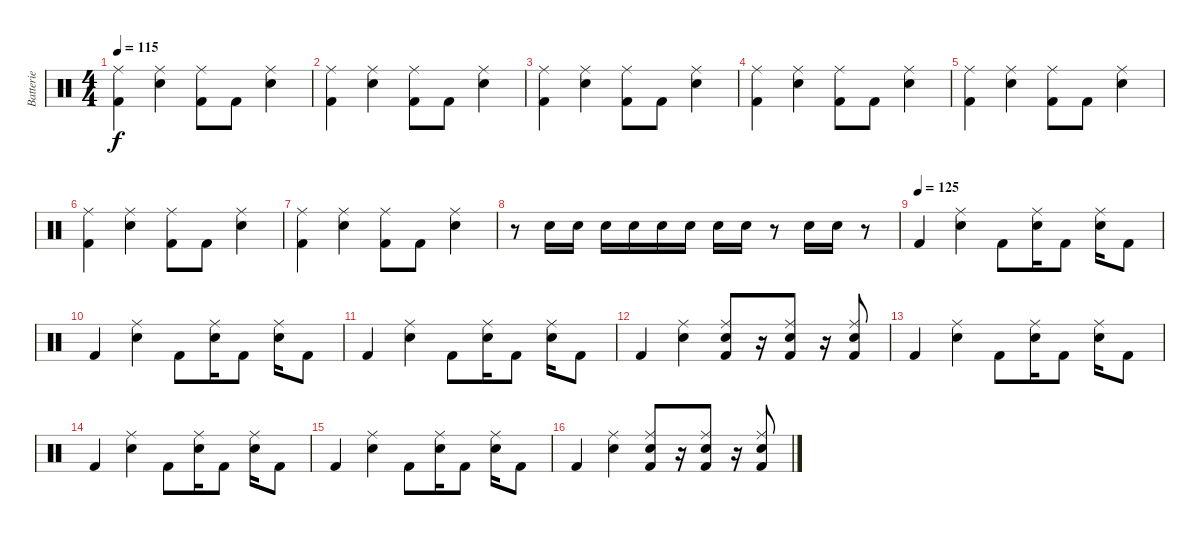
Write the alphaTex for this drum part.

\track ("Batterie" "Batterie") {instrument percussion}
\staff {score}
\articulation defaults
\ts (4 4)
\tempo 115
\clef neutral
\ks c
("Kick (hit) 2" "Ride (middle)").4{dy f} ("Snare (hit) 2" "Ride (middle)").4 ("Kick (hit) 2" "Ride (middle)").8 "Kick (hit) 2".8 ("Snare (hit) 2" "Ride (middle)").4 |
("Kick (hit) 2" "Ride (middle)").4 ("Snare (hit) 2" "Ride (middle)").4 ("Kick (hit) 2" "Ride (middle)").8 "Kick (hit) 2".8 ("Snare (hit) 2" "Ride (middle)").4 |
("Kick (hit) 2" "Ride (middle)").4 ("Snare (hit) 2" "Ride (middle)").4 ("Kick (hit) 2" "Ride (middle)").8 "Kick (hit) 2".8 ("Snare (hit) 2" "Ride (middle)").4 |
("Kick (hit) 2" "Ride (middle)").4 ("Snare (hit) 2" "Ride (middle)").4 ("Kick (hit) 2" "Ride (middle)").8 "Kick (hit) 2".8 ("Snare (hit) 2" "Ride (middle)").4 |
("Kick (hit) 2" "Ride (middle)").4 ("Snare (hit) 2" "Ride (middle)").4 ("Kick (hit) 2" "Ride (middle)").8 "Kick (hit) 2".8 ("Snare (hit) 2" "Ride (middle)").4 |
("Kick (hit) 2" "Ride (middle)").4 ("Snare (hit) 2" "Ride (middle)").4 ("Kick (hit) 2" "Ride (middle)").8 "Kick (hit) 2".8 ("Snare (hit) 2" "Ride (middle)").4 |
("Kick (hit) 2" "Ride (middle)").4 ("Snare (hit) 2" "Ride (middle)").4 ("Kick (hit) 2" "Ride (middle)").8 "Kick (hit) 2".8 ("Snare (hit) 2" "Ride (middle)").4 |
r.8{volume 8} "Snare (hit) 2".16{volume 13} "Snare (hit) 2".16 "Snare (hit) 2".16 "Snare (hit) 2".16 "Snare (hit) 2".16 "Snare (hit) 2".16 "Snare (hit) 2".16 "Snare (hit) 2".16 r.8 "Snare (hit) 2".16 "Snare (hit) 2".16 r.8 |
\section ("" "")
\tempo (125)
"Kick (hit) 2".4 ("Snare (hit) 2" "Ride (middle)").4 "Kick (hit) 2".8 ("Snare (hit) 2" "Ride (middle)").16 "Kick (hit) 2".8 ("Snare (hit) 2" "Ride (middle)").16 "Kick (hit) 2".8 |
"Kick (hit) 2".4 ("Snare (hit) 2" "Ride (middle)").4 "Kick (hit) 2".8 ("Snare (hit) 2" "Ride (middle)").16 "Kick (hit) 2".8 ("Snare (hit) 2" "Ride (middle)").16 "Kick (hit) 2".8 |
"Kick (hit) 2".4 ("Snare (hit) 2" "Ride (middle)").4 "Kick (hit) 2".8 ("Snare (hit) 2" "Ride (middle)").16 "Kick (hit) 2".8 ("Snare (hit) 2" "Ride (middle)").16 "Kick (hit) 2".8 |
"Kick (hit) 2".4 ("Snare (hit) 2" "Ride (middle)").4 ("Kick (hit) 2" "Snare (hit) 2" "Ride (middle)").8 r.16 ("Kick (hit) 2" "Snare (hit) 2" "Ride (middle)").8 r.16 ("Kick (hit) 2" "Snare (hit) 2" "Ride (middle)").8 |
"Kick (hit) 2".4 ("Snare (hit) 2" "Ride (middle)").4 "Kick (hit) 2".8 ("Snare (hit) 2" "Ride (middle)").16 "Kick (hit) 2".8 ("Snare (hit) 2" "Ride (middle)").16 "Kick (hit) 2".8 |
"Kick (hit) 2".4 ("Snare (hit) 2" "Ride (middle)").4 "Kick (hit) 2".8 ("Snare (hit) 2" "Ride (middle)").16 "Kick (hit) 2".8 ("Snare (hit) 2" "Ride (middle)").16 "Kick (hit) 2".8 |
"Kick (hit) 2".4 ("Snare (hit) 2" "Ride (middle)").4 "Kick (hit) 2".8 ("Snare (hit) 2" "Ride (middle)").16 "Kick (hit) 2".8 ("Snare (hit) 2" "Ride (middle)").16 "Kick (hit) 2".8 |
"Kick (hit) 2".4 ("Snare (hit) 2" "Ride (middle)").4 ("Kick (hit) 2" "Snare (hit) 2" "Ride (middle)").8 r.16 ("Kick (hit) 2" "Snare (hit) 2" "Ride (middle)").8 r.16 ("Kick (hit) 2" "Snare (hit) 2" "Ride (middle)").8
